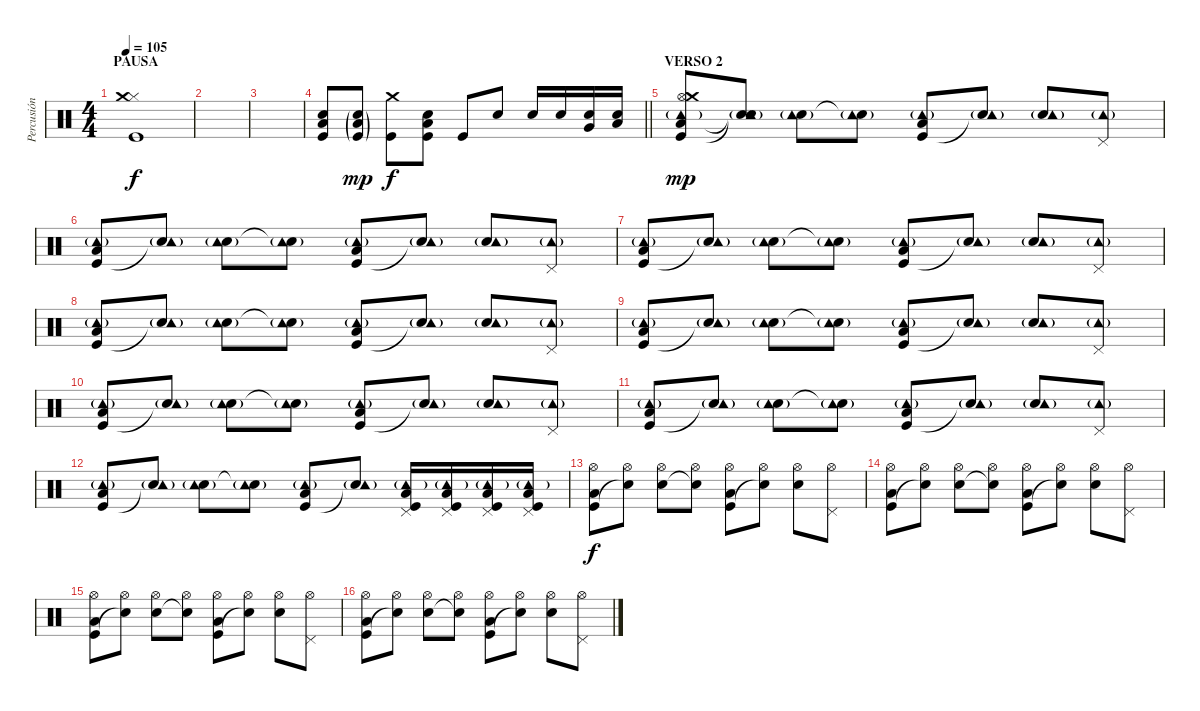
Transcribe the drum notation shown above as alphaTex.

\track ("Percusión" "Percusión") {instrument percussion}
\staff {score}
\articulation defaults
\ts (4 4)
\section ("" "PAUSA")
\tempo 105
\clef neutral
\ks c
("Kick (hit)" "Hi-Hat (closed)" "Crash medium (hit)").1{dy f} |
|
|
\barLineRight lightlight
("Electric Snare (hit)" "Low Floor Tom (hit)" "Kick (hit)").8 ("Low Floor Tom (hit)"{g} "Electric Snare (hit)"{g} "Kick (hit)"{g}).8{dy mp} ("Kick (hit)" "Crash medium (hit)").8{dy f} ("Electric Snare (hit)" "Low Floor Tom (hit)" "Kick (hit)").8 "Kick (hit)".8 "Electric Snare (hit)".8 "Electric Snare (hit)".16 "Electric Snare (hit)".16 ("Electric Snare (hit)" "Very Low Tom (hit)").16 ("Electric Snare (hit)" "Low Floor Tom (hit)").16 |
\section ("" "VERSO 2")
("Kick (hit)" "Low Floor Tom (hit)" "Hi-Hat (open)" "Tambourine (hit)"{g} "Crash medium (hit)").8{dy mp} ("Snare (hit)"{t} "Snare (hit)"{t} "Tambourine (hit)"{g}).8 ("Snare (hit) 2" "Tambourine (hit)"{g}).8 ("Snare (hit)"{t} "Tambourine (hit)"{g}).8 ("Kick (hit)" "Low Floor Tom (hit)" "Tambourine (hit)"{g}).8 ("Snare (hit)"{t} "Tambourine (hit)"{g}).8 ("Electric Snare (hit)" "Tambourine (hit)"{g}).8 ("Pedal Hi-Hat (hit)" "Tambourine (hit)"{g}).8 |
("Kick (hit)" "Low Floor Tom (hit)" "Tambourine (hit)"{g}).8 ("Snare (hit)"{t} "Tambourine (hit)"{g}).8 ("Snare (hit) 2" "Tambourine (hit)"{g}).8 ("Snare (hit)"{t} "Tambourine (hit)"{g}).8 ("Kick (hit)" "Low Floor Tom (hit)" "Tambourine (hit)"{g}).8 ("Snare (hit)"{t} "Tambourine (hit)"{g}).8 ("Electric Snare (hit)" "Tambourine (hit)"{g}).8 ("Pedal Hi-Hat (hit)" "Tambourine (hit)"{g}).8 |
("Kick (hit)" "Low Floor Tom (hit)" "Tambourine (hit)"{g}).8 ("Snare (hit)"{t} "Tambourine (hit)"{g}).8 ("Snare (hit) 2" "Tambourine (hit)"{g}).8 ("Snare (hit)"{t} "Tambourine (hit)"{g}).8 ("Kick (hit)" "Low Floor Tom (hit)" "Tambourine (hit)"{g}).8 ("Snare (hit)"{t} "Tambourine (hit)"{g}).8 ("Electric Snare (hit)" "Tambourine (hit)"{g}).8 ("Pedal Hi-Hat (hit)" "Tambourine (hit)"{g}).8 |
("Kick (hit)" "Low Floor Tom (hit)" "Tambourine (hit)"{g}).8 ("Snare (hit)"{t} "Tambourine (hit)"{g}).8 ("Snare (hit) 2" "Tambourine (hit)"{g}).8 ("Snare (hit)"{t} "Tambourine (hit)"{g}).8 ("Kick (hit)" "Low Floor Tom (hit)" "Tambourine (hit)"{g}).8 ("Snare (hit)"{t} "Tambourine (hit)"{g}).8 ("Electric Snare (hit)" "Tambourine (hit)"{g}).8 ("Pedal Hi-Hat (hit)" "Tambourine (hit)"{g}).8 |
("Kick (hit)" "Low Floor Tom (hit)" "Tambourine (hit)"{g}).8 ("Snare (hit)"{t} "Tambourine (hit)"{g}).8 ("Snare (hit) 2" "Tambourine (hit)"{g}).8 ("Snare (hit)"{t} "Tambourine (hit)"{g}).8 ("Kick (hit)" "Low Floor Tom (hit)" "Tambourine (hit)"{g}).8 ("Snare (hit)"{t} "Tambourine (hit)"{g}).8 ("Electric Snare (hit)" "Tambourine (hit)"{g}).8 ("Pedal Hi-Hat (hit)" "Tambourine (hit)"{g}).8 |
("Kick (hit)" "Low Floor Tom (hit)" "Tambourine (hit)"{g}).8 ("Snare (hit)"{t} "Tambourine (hit)"{g}).8 ("Snare (hit) 2" "Tambourine (hit)"{g}).8 ("Snare (hit)"{t} "Tambourine (hit)"{g}).8 ("Kick (hit)" "Low Floor Tom (hit)" "Tambourine (hit)"{g}).8 ("Snare (hit)"{t} "Tambourine (hit)"{g}).8 ("Electric Snare (hit)" "Tambourine (hit)"{g}).8 ("Pedal Hi-Hat (hit)" "Tambourine (hit)"{g}).8 |
("Kick (hit)" "Low Floor Tom (hit)" "Tambourine (hit)"{g}).8 ("Snare (hit)"{t} "Tambourine (hit)"{g}).8 ("Snare (hit) 2" "Tambourine (hit)"{g}).8 ("Snare (hit)"{t} "Tambourine (hit)"{g}).8 ("Kick (hit)" "Low Floor Tom (hit)" "Tambourine (hit)"{g}).8 ("Snare (hit)"{t} "Tambourine (hit)"{g}).8 ("Electric Snare (hit)" "Tambourine (hit)"{g}).8 ("Pedal Hi-Hat (hit)" "Tambourine (hit)"{g}).8 |
("Kick (hit)" "Low Floor Tom (hit)" "Tambourine (hit)"{g}).8 ("Snare (hit)"{t} "Tambourine (hit)"{g}).8 ("Snare (hit) 2" "Tambourine (hit)"{g}).8 ("Snare (hit)"{t} "Tambourine (hit)"{g}).8 ("Kick (hit)" "Low Floor Tom (hit)" "Tambourine (hit)"{g}).8 ("Snare (hit)"{t} "Tambourine (hit)"{g}).8 ("Pedal Hi-Hat (hit)" "Low Floor Tom (hit)" "Kick (hit)" "Tambourine (hit)"{g}).16 ("Kick (hit)" "Low Floor Tom (hit)" "Pedal Hi-Hat (hit)" "Tambourine (hit)"{g}).16 ("Pedal Hi-Hat (hit)" "Low Floor Tom (hit)" "Kick (hit)" "Tambourine (hit)"{g}).16 ("Kick (hit)" "Low Floor Tom (hit)" "Pedal Hi-Hat (hit)" "Tambourine (hit)"{g}).16 |
("Kick (hit)" "Low Floor Tom (hit)" "Hi-Hat (open)").8{dy f} ("Snare (hit)"{t} "Hi-Hat (open)").8 ("Snare (hit) 2" "Hi-Hat (open)").8 ("Snare (hit)"{t} "Hi-Hat (open)").8 ("Kick (hit)" "Low Floor Tom (hit)" "Hi-Hat (open)").8 ("Snare (hit)"{t} "Hi-Hat (open)").8 ("Electric Snare (hit)" "Hi-Hat (open)").8 ("Pedal Hi-Hat (hit)" "Hi-Hat (open)").8 |
("Kick (hit)" "Low Floor Tom (hit)" "Hi-Hat (open)").8 ("Snare (hit)"{t} "Hi-Hat (open)").8 ("Snare (hit) 2" "Hi-Hat (open)").8 ("Snare (hit)"{t} "Hi-Hat (open)").8 ("Kick (hit)" "Low Floor Tom (hit)" "Hi-Hat (open)").8 ("Snare (hit)"{t} "Hi-Hat (open)").8 ("Electric Snare (hit)" "Hi-Hat (open)").8 ("Pedal Hi-Hat (hit)" "Hi-Hat (open)").8 |
("Kick (hit)" "Low Floor Tom (hit)" "Hi-Hat (open)").8 ("Snare (hit)"{t} "Hi-Hat (open)").8 ("Snare (hit) 2" "Hi-Hat (open)").8 ("Snare (hit)"{t} "Hi-Hat (open)").8 ("Kick (hit)" "Low Floor Tom (hit)" "Hi-Hat (open)").8 ("Snare (hit)"{t} "Hi-Hat (open)").8 ("Electric Snare (hit)" "Hi-Hat (open)").8 ("Pedal Hi-Hat (hit)" "Hi-Hat (open)").8 |
("Kick (hit)" "Low Floor Tom (hit)" "Hi-Hat (open)").8 ("Snare (hit)"{t} "Hi-Hat (open)").8 ("Snare (hit) 2" "Hi-Hat (open)").8 ("Snare (hit)"{t} "Hi-Hat (open)").8 ("Kick (hit)" "Low Floor Tom (hit)" "Hi-Hat (open)").8 ("Snare (hit)"{t} "Hi-Hat (open)").8 ("Electric Snare (hit)" "Hi-Hat (open)").8 ("Pedal Hi-Hat (hit)" "Hi-Hat (open)").8
